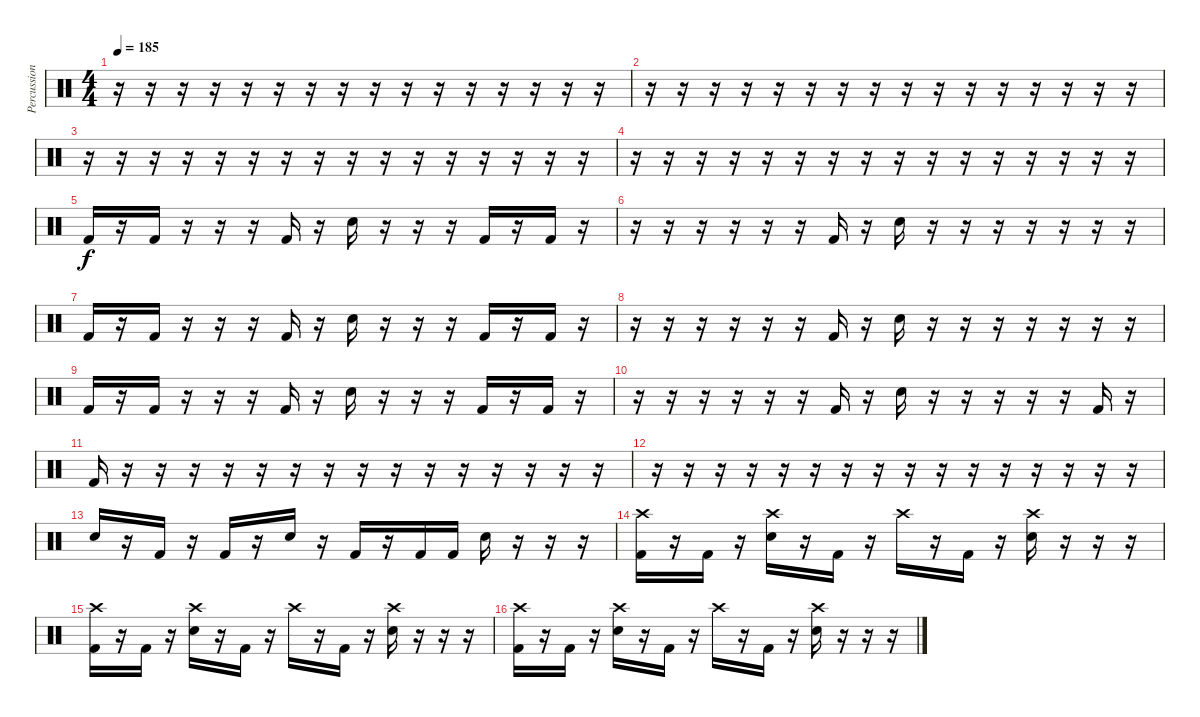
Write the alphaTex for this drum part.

\track ("Percussion" "Percussion") {instrument percussion}
\staff {score}
\articulation defaults
\ts (4 4)
\tempo 185
\clef neutral
\ks c
r.16{dy f} r.16 r.16 r.16 r.16 r.16 r.16 r.16 r.16 r.16 r.16 r.16 r.16 r.16 r.16 r.16 |
r.16 r.16 r.16 r.16 r.16 r.16 r.16 r.16 r.16 r.16 r.16 r.16 r.16 r.16 r.16 r.16 |
r.16 r.16 r.16 r.16 r.16 r.16 r.16 r.16 r.16 r.16 r.16 r.16 r.16 r.16 r.16 r.16 |
r.16 r.16 r.16 r.16 r.16 r.16 r.16 r.16 r.16 r.16 r.16 r.16 r.16 r.16 r.16 r.16 |
"Kick (hit) 2".16 r.16 "Kick (hit) 2".16 r.16 r.16 r.16 "Kick (hit) 2".16 r.16 "Electric Snare (hit)".16 r.16 r.16 r.16 "Kick (hit) 2".16 r.16 "Kick (hit) 2".16 r.16 |
r.16 r.16 r.16 r.16 r.16 r.16 "Kick (hit) 2".16 r.16 "Electric Snare (hit)".16 r.16 r.16 r.16 r.16 r.16 r.16 r.16 |
"Kick (hit) 2".16 r.16 "Kick (hit) 2".16 r.16 r.16 r.16 "Kick (hit) 2".16 r.16 "Electric Snare (hit)".16 r.16 r.16 r.16 "Kick (hit) 2".16 r.16 "Kick (hit) 2".16 r.16 |
r.16 r.16 r.16 r.16 r.16 r.16 "Kick (hit) 2".16 r.16 "Electric Snare (hit)".16 r.16 r.16 r.16 r.16 r.16 r.16 r.16 |
"Kick (hit) 2".16 r.16 "Kick (hit) 2".16 r.16 r.16 r.16 "Kick (hit) 2".16 r.16 "Electric Snare (hit)".16 r.16 r.16 r.16 "Kick (hit) 2".16 r.16 "Kick (hit) 2".16 r.16 |
r.16 r.16 r.16 r.16 r.16 r.16 "Kick (hit) 2".16 r.16 "Electric Snare (hit)".16 r.16 r.16 r.16 r.16 r.16 "Kick (hit) 2".16 r.16 |
"Kick (hit) 2".16 r.16 r.16 r.16 r.16 r.16 r.16 r.16 r.16 r.16 r.16 r.16 r.16 r.16 r.16 r.16 |
r.16 r.16 r.16 r.16 r.16 r.16 r.16 r.16 r.16 r.16 r.16 r.16 r.16 r.16 r.16 r.16 |
"Electric Snare (hit)".16 r.16 "Kick (hit) 2".16 r.16 "Kick (hit) 2".16 r.16 "Electric Snare (hit)".16 r.16 "Kick (hit) 2".16 r.16 "Kick (hit) 2".16 "Kick (hit) 2".16 "Electric Snare (hit)".16 r.16 r.16 r.16 |
("Crash high (hit)" "Kick (hit) 2").16 r.16 "Kick (hit) 2".16 r.16 ("Crash high (hit)" "Electric Snare (hit)").16 r.16 "Kick (hit) 2".16 r.16 "Crash high (hit)".16 r.16 "Kick (hit) 2".16 r.16 ("Crash high (hit)" "Electric Snare (hit)").16 r.16 r.16 r.16 |
("Crash high (hit)" "Kick (hit) 2").16 r.16 "Kick (hit) 2".16 r.16 ("Crash high (hit)" "Electric Snare (hit)").16 r.16 "Kick (hit) 2".16 r.16 "Crash high (hit)".16 r.16 "Kick (hit) 2".16 r.16 ("Crash high (hit)" "Electric Snare (hit)").16 r.16 r.16 r.16 |
("Crash high (hit)" "Kick (hit) 2").16 r.16 "Kick (hit) 2".16 r.16 ("Crash high (hit)" "Electric Snare (hit)").16 r.16 "Kick (hit) 2".16 r.16 "Crash high (hit)".16 r.16 "Kick (hit) 2".16 r.16 ("Crash high (hit)" "Electric Snare (hit)").16 r.16 r.16 r.16
